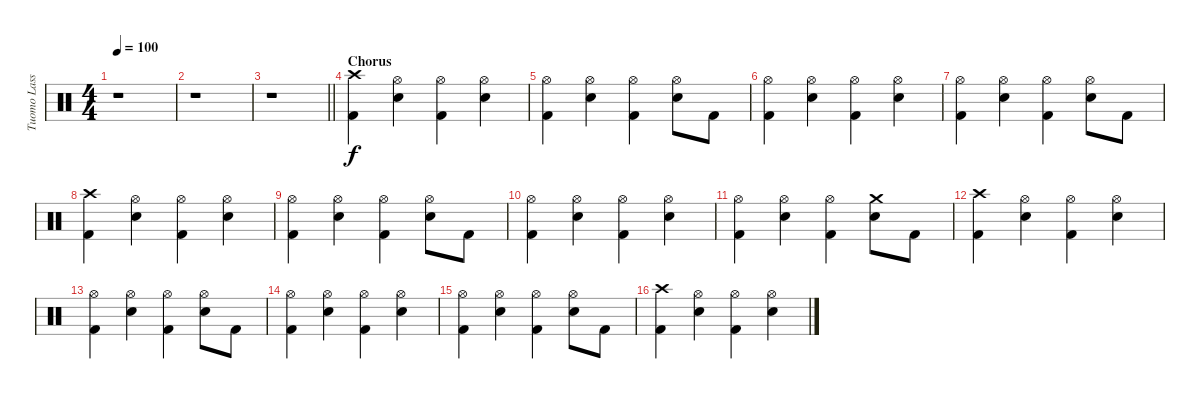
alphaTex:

\track ("Tuomo Lassila" "Tuomo Lass") {instrument percussion}
\staff {score}
\articulation defaults
\ts (4 4)
\tempo 100
\clef neutral
\ks c
r.1{dy f} |
r.1 |
\barLineRight lightlight
r.1 |
\section ("" "Chorus")
("Crash high (hit)" "Kick (hit) 2").4 ("Hi-Hat (open)" "Electric Snare (hit)").4 ("Hi-Hat (open)" "Kick (hit) 2").4 ("Hi-Hat (open)" "Electric Snare (hit)").4 |
("Hi-Hat (open)" "Kick (hit) 2").4 ("Hi-Hat (open)" "Electric Snare (hit)").4 ("Hi-Hat (open)" "Kick (hit) 2").4 ("Hi-Hat (open)" "Electric Snare (hit)").8 "Kick (hit) 2".8 |
("Hi-Hat (open)" "Kick (hit) 2").4 ("Hi-Hat (open)" "Electric Snare (hit)").4 ("Hi-Hat (open)" "Kick (hit) 2").4 ("Hi-Hat (open)" "Electric Snare (hit)").4 |
("Hi-Hat (open)" "Kick (hit) 2").4 ("Hi-Hat (open)" "Electric Snare (hit)").4 ("Hi-Hat (open)" "Kick (hit) 2").4 ("Hi-Hat (open)" "Electric Snare (hit)").8 "Kick (hit) 2".8 |
("Crash high (hit)" "Kick (hit) 2").4 ("Hi-Hat (open)" "Electric Snare (hit)").4 ("Hi-Hat (open)" "Kick (hit) 2").4 ("Hi-Hat (open)" "Electric Snare (hit)").4 |
("Hi-Hat (open)" "Kick (hit) 2").4 ("Hi-Hat (open)" "Electric Snare (hit)").4 ("Hi-Hat (open)" "Kick (hit) 2").4 ("Hi-Hat (open)" "Electric Snare (hit)").8 "Kick (hit) 2".8 |
("Hi-Hat (open)" "Kick (hit) 2").4 ("Hi-Hat (open)" "Electric Snare (hit)").4 ("Hi-Hat (open)" "Kick (hit) 2").4 ("Hi-Hat (open)" "Electric Snare (hit)").4 |
("Hi-Hat (open)" "Kick (hit) 2").4 ("Hi-Hat (open)" "Electric Snare (hit)").4 ("Hi-Hat (open)" "Kick (hit) 2").4 ("Crash medium (hit)" "Electric Snare (hit)").8 "Kick (hit) 2".8 |
("Crash high (hit)" "Kick (hit) 2").4 ("Hi-Hat (open)" "Electric Snare (hit)").4 ("Hi-Hat (open)" "Kick (hit) 2").4 ("Hi-Hat (open)" "Electric Snare (hit)").4 |
("Hi-Hat (open)" "Kick (hit) 2").4 ("Hi-Hat (open)" "Electric Snare (hit)").4 ("Hi-Hat (open)" "Kick (hit) 2").4 ("Hi-Hat (open)" "Electric Snare (hit)").8 "Kick (hit) 2".8 |
("Hi-Hat (open)" "Kick (hit) 2").4 ("Hi-Hat (open)" "Electric Snare (hit)").4 ("Hi-Hat (open)" "Kick (hit) 2").4 ("Hi-Hat (open)" "Electric Snare (hit)").4 |
("Hi-Hat (open)" "Kick (hit) 2").4 ("Hi-Hat (open)" "Electric Snare (hit)").4 ("Hi-Hat (open)" "Kick (hit) 2").4 ("Hi-Hat (open)" "Electric Snare (hit)").8 "Kick (hit) 2".8 |
("Crash high (hit)" "Kick (hit) 2").4 ("Hi-Hat (open)" "Electric Snare (hit)").4 ("Hi-Hat (open)" "Kick (hit) 2").4 ("Hi-Hat (open)" "Electric Snare (hit)").4
